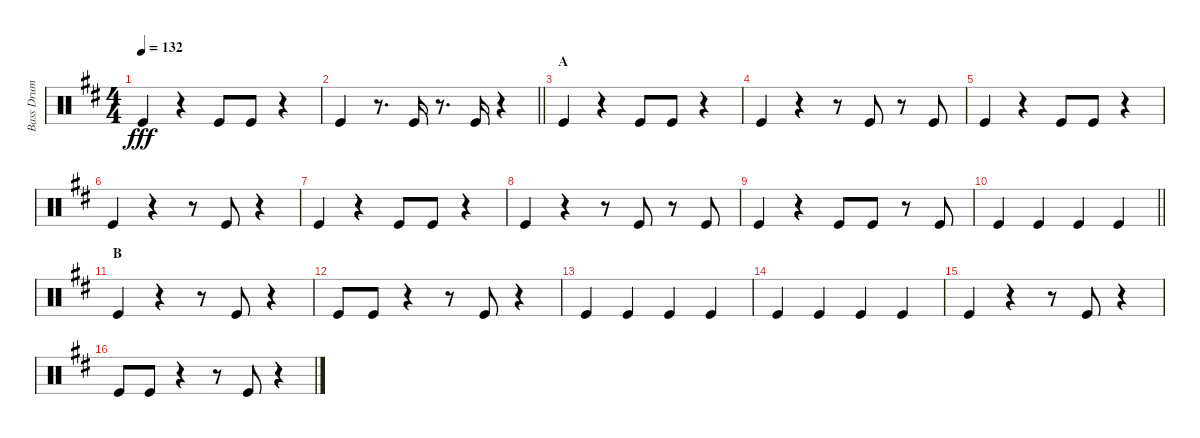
\track ("Bass Drum" "Bass Drum") {instrument percussion}
\staff {score}
\articulation defaults
\ts (4 4)
\tempo 132
\clef neutral
\ks d "Kick (hit)".4{dy fff}
r.4 "Kick (hit)".8 "Kick (hit)".8 r.4 |
\barLineRight lightlight "Kick (hit)".4
r.8{d} "Kick (hit)".16 r.8{d} "Kick (hit)".16 r.4 |
\section ("" "A")
"Kick (hit)".4 r.4 "Kick (hit)".8 "Kick (hit)".8 r.4 |
"Kick (hit)".4 r.4 r.8 "Kick (hit)".8 r.8 "Kick (hit)".8 |
"Kick (hit)".4 r.4 "Kick (hit)".8 "Kick (hit)".8 r.4 |
"Kick (hit)".4 r.4 r.8 "Kick (hit)".8 r.4 |
"Kick (hit)".4 r.4 "Kick (hit)".8 "Kick (hit)".8 r.4 |
"Kick (hit)".4 r.4 r.8 "Kick (hit)".8 r.8 "Kick (hit)".8 |
"Kick (hit)".4 r.4 "Kick (hit)".8 "Kick (hit)".8 r.8 "Kick (hit)".8 |
\barLineRight lightlight "Kick (hit)".4 "Kick (hit)".4 "Kick (hit)".4 "Kick (hit)".4
|
\section ("" "B")
"Kick (hit)".4 r.4 r.8 "Kick (hit)".8 r.4 |
"Kick (hit)".8 "Kick (hit)".8 r.4 r.8 "Kick (hit)".8 r.4 |
"Kick (hit)".4 "Kick (hit)".4 "Kick (hit)".4 "Kick (hit)".4 |
"Kick (hit)".4 "Kick (hit)".4 "Kick (hit)".4 "Kick (hit)".4 |
"Kick (hit)".4 r.4 r.8 "Kick (hit)".8 r.4 |
"Kick (hit)".8 "Kick (hit)".8 r.4 r.8 "Kick (hit)".8 r.4
